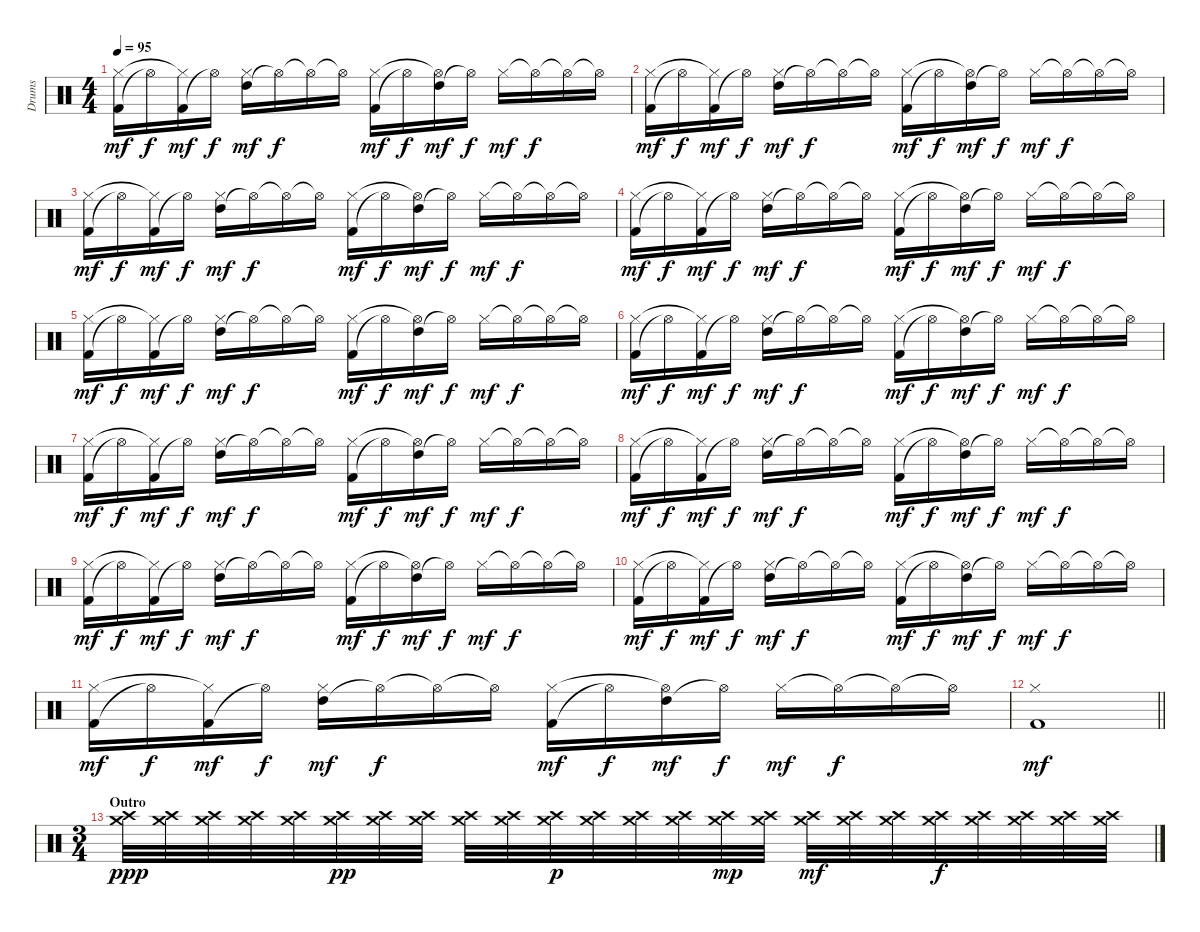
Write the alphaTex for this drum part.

\track ("Drums" "Drums") {instrument percussion}
\staff {score}
\articulation defaults
\ts (4 4)
\tempo 95
\clef neutral
\ks c
("Kick (hit) 2" "Hi-Hat (closed)").16{dy mf} "Hi-Hat (open)"{t}.16{dy f} ("Kick (hit) 2" "Hi-Hat (closed)"{t}).16{dy mf} "Hi-Hat (open)"{t}.16{dy f} ("High Tom (hit)" "Hi-Hat (closed)").16{dy mf} "Hi-Hat (open)"{t}.16{dy f} "Hi-Hat (open)"{t}.16 "Hi-Hat (open)"{t}.16 ("Kick (hit) 2" "Hi-Hat (closed)").16{dy mf} "Hi-Hat (open)"{t}.16{dy f} ("High Tom (hit)" "Hi-Hat (open)"{t}).16{dy mf} "Hi-Hat (open)"{t}.16{dy f} "Hi-Hat (closed)".16{dy mf} "Hi-Hat (open)"{t}.16{dy f} "Hi-Hat (open)"{t}.16 "Hi-Hat (open)"{t}.16 |
("Kick (hit) 2" "Hi-Hat (closed)").16{dy mf} "Hi-Hat (open)"{t}.16{dy f} ("Kick (hit) 2" "Hi-Hat (closed)"{t}).16{dy mf} "Hi-Hat (open)"{t}.16{dy f} ("High Tom (hit)" "Hi-Hat (closed)").16{dy mf} "Hi-Hat (open)"{t}.16{dy f} "Hi-Hat (open)"{t}.16 "Hi-Hat (open)"{t}.16 ("Kick (hit) 2" "Hi-Hat (closed)").16{dy mf} "Hi-Hat (open)"{t}.16{dy f} ("High Tom (hit)" "Hi-Hat (open)"{t}).16{dy mf} "Hi-Hat (open)"{t}.16{dy f} "Hi-Hat (closed)".16{dy mf} "Hi-Hat (open)"{t}.16{dy f} "Hi-Hat (open)"{t}.16 "Hi-Hat (open)"{t}.16 |
("Kick (hit) 2" "Hi-Hat (closed)").16{dy mf} "Hi-Hat (open)"{t}.16{dy f} ("Kick (hit) 2" "Hi-Hat (closed)"{t}).16{dy mf} "Hi-Hat (open)"{t}.16{dy f} ("High Tom (hit)" "Hi-Hat (closed)").16{dy mf} "Hi-Hat (open)"{t}.16{dy f} "Hi-Hat (open)"{t}.16 "Hi-Hat (open)"{t}.16 ("Kick (hit) 2" "Hi-Hat (closed)").16{dy mf} "Hi-Hat (open)"{t}.16{dy f} ("High Tom (hit)" "Hi-Hat (open)"{t}).16{dy mf} "Hi-Hat (open)"{t}.16{dy f} "Hi-Hat (closed)".16{dy mf} "Hi-Hat (open)"{t}.16{dy f} "Hi-Hat (open)"{t}.16 "Hi-Hat (open)"{t}.16 |
("Kick (hit) 2" "Hi-Hat (closed)").16{dy mf} "Hi-Hat (open)"{t}.16{dy f} ("Kick (hit) 2" "Hi-Hat (closed)"{t}).16{dy mf} "Hi-Hat (open)"{t}.16{dy f} ("High Tom (hit)" "Hi-Hat (closed)").16{dy mf} "Hi-Hat (open)"{t}.16{dy f} "Hi-Hat (open)"{t}.16 "Hi-Hat (open)"{t}.16 ("Kick (hit) 2" "Hi-Hat (closed)").16{dy mf} "Hi-Hat (open)"{t}.16{dy f} ("High Tom (hit)" "Hi-Hat (open)"{t}).16{dy mf} "Hi-Hat (open)"{t}.16{dy f} "Hi-Hat (closed)".16{dy mf} "Hi-Hat (open)"{t}.16{dy f} "Hi-Hat (open)"{t}.16 "Hi-Hat (open)"{t}.16 |
("Kick (hit) 2" "Hi-Hat (closed)").16{dy mf} "Hi-Hat (open)"{t}.16{dy f} ("Kick (hit) 2" "Hi-Hat (closed)"{t}).16{dy mf} "Hi-Hat (open)"{t}.16{dy f} ("High Tom (hit)" "Hi-Hat (closed)").16{dy mf} "Hi-Hat (open)"{t}.16{dy f} "Hi-Hat (open)"{t}.16 "Hi-Hat (open)"{t}.16 ("Kick (hit) 2" "Hi-Hat (closed)").16{dy mf} "Hi-Hat (open)"{t}.16{dy f} ("High Tom (hit)" "Hi-Hat (open)"{t}).16{dy mf} "Hi-Hat (open)"{t}.16{dy f} "Hi-Hat (closed)".16{dy mf} "Hi-Hat (open)"{t}.16{dy f} "Hi-Hat (open)"{t}.16 "Hi-Hat (open)"{t}.16 |
("Kick (hit) 2" "Hi-Hat (closed)").16{dy mf} "Hi-Hat (open)"{t}.16{dy f} ("Kick (hit) 2" "Hi-Hat (closed)"{t}).16{dy mf} "Hi-Hat (open)"{t}.16{dy f} ("High Tom (hit)" "Hi-Hat (closed)").16{dy mf} "Hi-Hat (open)"{t}.16{dy f} "Hi-Hat (open)"{t}.16 "Hi-Hat (open)"{t}.16 ("Kick (hit) 2" "Hi-Hat (closed)").16{dy mf} "Hi-Hat (open)"{t}.16{dy f} ("High Tom (hit)" "Hi-Hat (open)"{t}).16{dy mf} "Hi-Hat (open)"{t}.16{dy f} "Hi-Hat (closed)".16{dy mf} "Hi-Hat (open)"{t}.16{dy f} "Hi-Hat (open)"{t}.16 "Hi-Hat (open)"{t}.16 |
("Kick (hit) 2" "Hi-Hat (closed)").16{dy mf} "Hi-Hat (open)"{t}.16{dy f} ("Kick (hit) 2" "Hi-Hat (closed)"{t}).16{dy mf} "Hi-Hat (open)"{t}.16{dy f} ("High Tom (hit)" "Hi-Hat (closed)").16{dy mf} "Hi-Hat (open)"{t}.16{dy f} "Hi-Hat (open)"{t}.16 "Hi-Hat (open)"{t}.16 ("Kick (hit) 2" "Hi-Hat (closed)").16{dy mf} "Hi-Hat (open)"{t}.16{dy f} ("High Tom (hit)" "Hi-Hat (open)"{t}).16{dy mf} "Hi-Hat (open)"{t}.16{dy f} "Hi-Hat (closed)".16{dy mf} "Hi-Hat (open)"{t}.16{dy f} "Hi-Hat (open)"{t}.16 "Hi-Hat (open)"{t}.16 |
("Kick (hit) 2" "Hi-Hat (closed)").16{dy mf} "Hi-Hat (open)"{t}.16{dy f} ("Kick (hit) 2" "Hi-Hat (closed)"{t}).16{dy mf} "Hi-Hat (open)"{t}.16{dy f} ("High Tom (hit)" "Hi-Hat (closed)").16{dy mf} "Hi-Hat (open)"{t}.16{dy f} "Hi-Hat (open)"{t}.16 "Hi-Hat (open)"{t}.16 ("Kick (hit) 2" "Hi-Hat (closed)").16{dy mf} "Hi-Hat (open)"{t}.16{dy f} ("High Tom (hit)" "Hi-Hat (open)"{t}).16{dy mf} "Hi-Hat (open)"{t}.16{dy f} "Hi-Hat (closed)".16{dy mf} "Hi-Hat (open)"{t}.16{dy f} "Hi-Hat (open)"{t}.16 "Hi-Hat (open)"{t}.16 |
("Kick (hit) 2" "Hi-Hat (closed)").16{dy mf} "Hi-Hat (open)"{t}.16{dy f} ("Kick (hit) 2" "Hi-Hat (closed)"{t}).16{dy mf} "Hi-Hat (open)"{t}.16{dy f} ("High Tom (hit)" "Hi-Hat (closed)").16{dy mf} "Hi-Hat (open)"{t}.16{dy f} "Hi-Hat (open)"{t}.16 "Hi-Hat (open)"{t}.16 ("Kick (hit) 2" "Hi-Hat (closed)").16{dy mf} "Hi-Hat (open)"{t}.16{dy f} ("High Tom (hit)" "Hi-Hat (open)"{t}).16{dy mf} "Hi-Hat (open)"{t}.16{dy f} "Hi-Hat (closed)".16{dy mf} "Hi-Hat (open)"{t}.16{dy f} "Hi-Hat (open)"{t}.16 "Hi-Hat (open)"{t}.16 |
("Kick (hit) 2" "Hi-Hat (closed)").16{dy mf} "Hi-Hat (open)"{t}.16{dy f} ("Kick (hit) 2" "Hi-Hat (closed)"{t}).16{dy mf} "Hi-Hat (open)"{t}.16{dy f} ("High Tom (hit)" "Hi-Hat (closed)").16{dy mf} "Hi-Hat (open)"{t}.16{dy f} "Hi-Hat (open)"{t}.16 "Hi-Hat (open)"{t}.16 ("Kick (hit) 2" "Hi-Hat (closed)").16{dy mf} "Hi-Hat (open)"{t}.16{dy f} ("High Tom (hit)" "Hi-Hat (open)"{t}).16{dy mf} "Hi-Hat (open)"{t}.16{dy f} "Hi-Hat (closed)".16{dy mf} "Hi-Hat (open)"{t}.16{dy f} "Hi-Hat (open)"{t}.16 "Hi-Hat (open)"{t}.16 |
("Kick (hit) 2" "Hi-Hat (closed)").16{dy mf} "Hi-Hat (open)"{t}.16{dy f} ("Kick (hit) 2" "Hi-Hat (closed)"{t}).16{dy mf} "Hi-Hat (open)"{t}.16{dy f} ("High Tom (hit)" "Hi-Hat (closed)").16{dy mf} "Hi-Hat (open)"{t}.16{dy f} "Hi-Hat (open)"{t}.16 "Hi-Hat (open)"{t}.16 ("Kick (hit) 2" "Hi-Hat (closed)").16{dy mf} "Hi-Hat (open)"{t}.16{dy f} ("High Tom (hit)" "Hi-Hat (open)"{t}).16{dy mf} "Hi-Hat (open)"{t}.16{dy f} "Hi-Hat (closed)".16{dy mf} "Hi-Hat (open)"{t}.16{dy f} "Hi-Hat (open)"{t}.16 "Hi-Hat (open)"{t}.16 |
\barLineRight lightlight
("Hi-Hat (closed)" "Kick (hit) 2").1{dy mf} |
\ts (3 4)
\section ("" "Outro")
("Crash medium (hit)" "Crash high (hit)").32{dy ppp} ("Crash medium (hit)" "Crash high (hit)").32 ("Crash medium (hit)" "Crash high (hit)").32 ("Crash medium (hit)" "Crash high (hit)").32 ("Crash medium (hit)" "Crash high (hit)").32 ("Crash medium (hit)" "Crash high (hit)").32{dy pp} ("Crash medium (hit)" "Crash high (hit)").32 ("Crash medium (hit)" "Crash high (hit)").32 ("Crash medium (hit)" "Crash high (hit)").32 ("Crash medium (hit)" "Crash high (hit)").32 ("Crash medium (hit)" "Crash high (hit)").32{dy p} ("Crash medium (hit)" "Crash high (hit)").32 ("Crash medium (hit)" "Crash high (hit)").32 ("Crash medium (hit)" "Crash high (hit)").32 ("Crash medium (hit)" "Crash high (hit)").32{dy mp} ("Crash medium (hit)" "Crash high (hit)").32 ("Crash medium (hit)" "Crash high (hit)").32{dy mf} ("Crash medium (hit)" "Crash high (hit)").32 ("Crash medium (hit)" "Crash high (hit)").32 ("Crash medium (hit)" "Crash high (hit)").32{dy f} ("Crash medium (hit)" "Crash high (hit)").32 ("Crash medium (hit)" "Crash high (hit)").32 ("Crash medium (hit)" "Crash high (hit)").32 ("Crash medium (hit)" "Crash high (hit)").32
